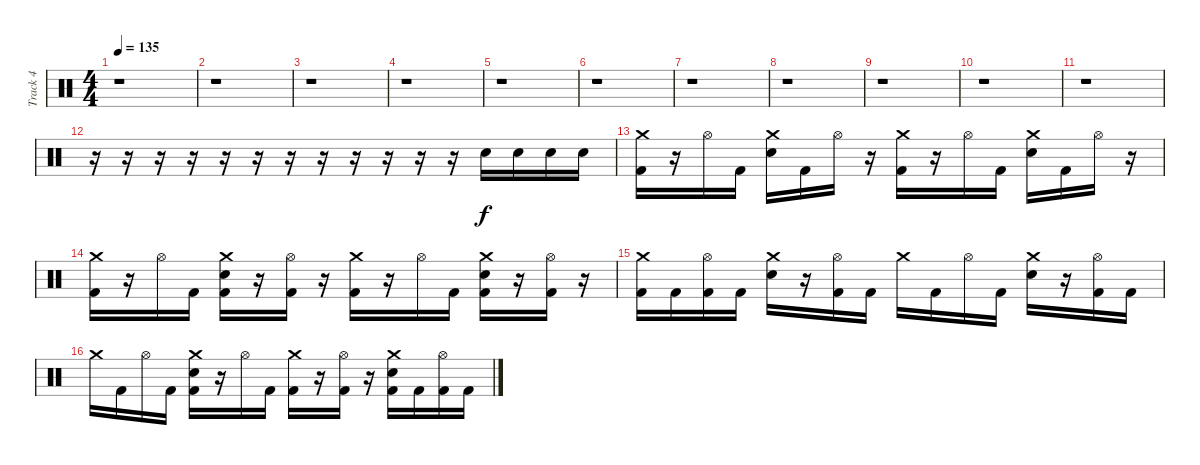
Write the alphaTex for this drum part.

\track ("Track 4" "Track 4") {instrument percussion}
\staff {score}
\articulation defaults
\ts (4 4)
\tempo 135
\clef neutral
\ks c
r.1{dy f} |
r.1 |
r.1 |
r.1 |
r.1 |
r.1 |
r.1 |
r.1 |
r.1 |
r.1 |
r.1 |
r.16 r.16 r.16 r.16 r.16 r.16 r.16 r.16 r.16 r.16 r.16 r.16 "Electric Snare (hit)".16 "Electric Snare (hit)".16 "Electric Snare (hit)".16 "Electric Snare (hit)".16 |
("Crash medium (hit)" "Kick (hit) 2").16 r.16 "Hi-Hat (open)".16 "Kick (hit) 2".16 ("Crash medium (hit)" "Electric Snare (hit)").16 "Kick (hit) 2".16 "Hi-Hat (open)".16 r.16 ("Crash medium (hit)" "Kick (hit) 2").16 r.16 "Hi-Hat (open)".16 "Kick (hit) 2".16 ("Crash medium (hit)" "Electric Snare (hit)").16 "Kick (hit) 2".16 "Hi-Hat (open)".16 r.16 |
("Crash medium (hit)" "Kick (hit) 2").16 r.16 "Hi-Hat (open)".16 "Kick (hit) 2".16 ("Crash medium (hit)" "Electric Snare (hit)" "Kick (hit) 2").16 r.16 ("Hi-Hat (open)" "Kick (hit) 2").16 r.16 ("Crash medium (hit)" "Kick (hit) 2").16 r.16 "Hi-Hat (open)".16 "Kick (hit) 2".16 ("Crash medium (hit)" "Electric Snare (hit)" "Kick (hit) 2").16 r.16 ("Hi-Hat (open)" "Kick (hit) 2").16 r.16 |
("Crash medium (hit)" "Kick (hit) 2").16 "Kick (hit) 2".16 ("Hi-Hat (open)" "Kick (hit) 2").16 "Kick (hit) 2".16 ("Crash medium (hit)" "Electric Snare (hit)").16 r.16 ("Hi-Hat (open)" "Kick (hit) 2").16 "Kick (hit) 2".16 "Crash medium (hit)".16 "Kick (hit) 2".16 "Hi-Hat (open)".16 "Kick (hit) 2".16 ("Crash medium (hit)" "Electric Snare (hit)").16 r.16 ("Hi-Hat (open)" "Kick (hit) 2").16 "Kick (hit) 2".16 |
"Crash medium (hit)".16 "Kick (hit) 2".16 "Hi-Hat (open)".16 "Kick (hit) 2".16 ("Crash medium (hit)" "Electric Snare (hit)" "Kick (hit) 2").16 r.16 "Hi-Hat (open)".16 "Kick (hit) 2".16 ("Crash medium (hit)" "Kick (hit) 2").16 r.16 ("Hi-Hat (open)" "Kick (hit) 2").16 r.16 ("Crash medium (hit)" "Electric Snare (hit)" "Kick (hit) 2").16 "Kick (hit) 2".16 ("Hi-Hat (open)" "Kick (hit) 2").16 "Kick (hit) 2".16
